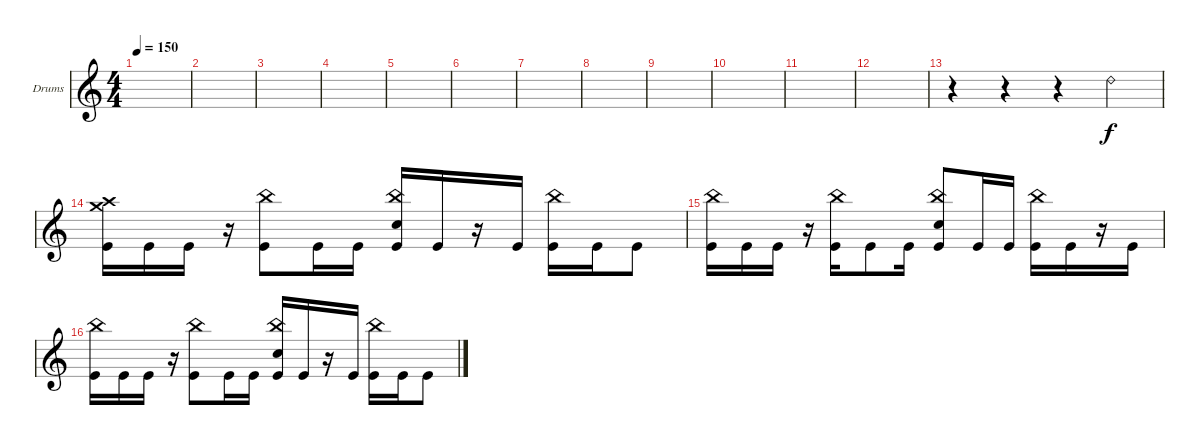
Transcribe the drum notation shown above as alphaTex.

\defaultSystemsLayout 4
\bracketExtendMode groupsimilarinstruments
\firstSystemTrackNameOrientation horizontal
\otherSystemsTrackNameOrientation horizontal
\track ("Drumkit" "Drums") {instrument percussion}
\staff {score}
\articulation defaults
\ts (4 4)
\tempo 150
\clef g2
\ks c
|
|
|
|
|
|
|
|
|
|
|
|
r.4 r.4 r.4 "Ride (bell) 2".4 |
("Kick (hit)" "Crash high (hit)" "Crash medium (hit)").16 "Kick (hit)".16 "Kick (hit)".16 r.16 ("Kick (hit)" "China (hit)").8 "Kick (hit)".16 "Kick (hit)".16 ("Kick (hit)" "China (hit)" "Snare (hit) 2").16 "Kick (hit)".16 r.16 "Kick (hit)".16 ("Kick (hit)" "China (hit)").16 "Kick (hit)".16 "Kick (hit)".8 |
("Kick (hit)" "China (hit)").16 "Kick (hit)".16 "Kick (hit)".16 r.16 ("Kick (hit)" "China (hit)").16 "Kick (hit)".8 "Kick (hit)".16 ("Kick (hit)" "China (hit)" "Snare (hit) 2").8 "Kick (hit)".16 "Kick (hit)".16 ("Kick (hit)" "China (hit)").16 "Kick (hit)".16 r.16 "Kick (hit)".16 |
("Kick (hit)" "China (hit)").16 "Kick (hit)".16 "Kick (hit)".16 r.16 ("Kick (hit)" "China (hit)").8 "Kick (hit)".16 "Kick (hit)".16 ("Kick (hit)" "China (hit)" "Snare (hit) 2").16 "Kick (hit)".16 r.16 "Kick (hit)".16 ("Kick (hit)" "China (hit)").16 "Kick (hit)".16 "Kick (hit)".8
